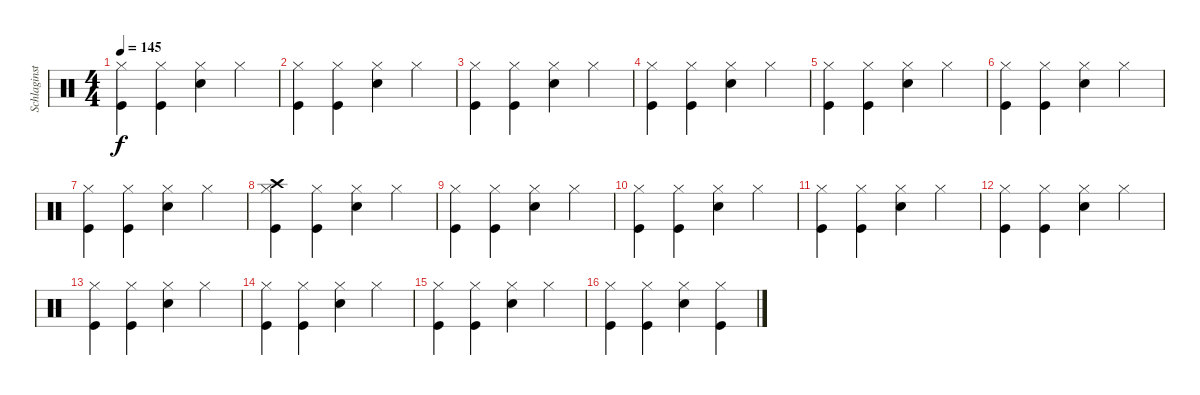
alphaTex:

\track ("Schlaginstrumente - Auswahl" "Schlaginst") {instrument percussion}
\staff {score}
\articulation defaults
\ts (4 4)
\tempo 145
\clef neutral
\ks c
("Kick (hit)" "Hi-Hat (closed)").4{dy f} ("Kick (hit)" "Hi-Hat (closed)").4 ("Snare (hit) 2" "Hi-Hat (closed)").4 "Hi-Hat (closed)".4 |
("Kick (hit)" "Hi-Hat (closed)").4 ("Kick (hit)" "Hi-Hat (closed)").4 ("Snare (hit) 2" "Hi-Hat (closed)").4 "Hi-Hat (closed)".4 |
("Kick (hit)" "Hi-Hat (closed)").4 ("Kick (hit)" "Hi-Hat (closed)").4 ("Snare (hit) 2" "Hi-Hat (closed)").4 "Hi-Hat (closed)".4 |
("Kick (hit)" "Hi-Hat (closed)").4 ("Kick (hit)" "Hi-Hat (closed)").4 ("Snare (hit) 2" "Hi-Hat (closed)").4 "Hi-Hat (closed)".4 |
("Kick (hit)" "Hi-Hat (closed)").4 ("Kick (hit)" "Hi-Hat (closed)").4 ("Snare (hit) 2" "Hi-Hat (closed)").4 "Hi-Hat (closed)".4 |
("Kick (hit)" "Hi-Hat (closed)").4 ("Kick (hit)" "Hi-Hat (closed)").4 ("Snare (hit) 2" "Hi-Hat (closed)").4 "Hi-Hat (closed)".4 |
("Kick (hit)" "Hi-Hat (closed)").4 ("Kick (hit)" "Hi-Hat (closed)").4 ("Snare (hit) 2" "Hi-Hat (closed)").4 "Hi-Hat (closed)".4 |
("Kick (hit)" "Hi-Hat (closed)" "Crash high (hit)").4 ("Kick (hit)" "Hi-Hat (closed)").4 ("Snare (hit) 2" "Hi-Hat (closed)").4 "Hi-Hat (closed)".4 |
("Kick (hit)" "Hi-Hat (closed)").4 ("Kick (hit)" "Hi-Hat (closed)").4 ("Snare (hit) 2" "Hi-Hat (closed)").4 "Hi-Hat (closed)".4 |
("Kick (hit)" "Hi-Hat (closed)").4 ("Kick (hit)" "Hi-Hat (closed)").4 ("Snare (hit) 2" "Hi-Hat (closed)").4 "Hi-Hat (closed)".4 |
("Kick (hit)" "Hi-Hat (closed)").4 ("Kick (hit)" "Hi-Hat (closed)").4 ("Snare (hit) 2" "Hi-Hat (closed)").4 "Hi-Hat (closed)".4 |
("Kick (hit)" "Hi-Hat (closed)").4 ("Kick (hit)" "Hi-Hat (closed)").4 ("Snare (hit) 2" "Hi-Hat (closed)").4 "Hi-Hat (closed)".4 |
("Kick (hit)" "Hi-Hat (closed)").4 ("Kick (hit)" "Hi-Hat (closed)").4 ("Snare (hit) 2" "Hi-Hat (closed)").4 "Hi-Hat (closed)".4 |
("Kick (hit)" "Hi-Hat (closed)").4 ("Kick (hit)" "Hi-Hat (closed)").4 ("Snare (hit) 2" "Hi-Hat (closed)").4 "Hi-Hat (closed)".4 |
("Kick (hit)" "Hi-Hat (closed)").4 ("Kick (hit)" "Hi-Hat (closed)").4 ("Snare (hit) 2" "Hi-Hat (closed)").4 "Hi-Hat (closed)".4 |
("Kick (hit)" "Hi-Hat (closed)").4 ("Kick (hit)" "Hi-Hat (closed)").4 ("Snare (hit) 2" "Hi-Hat (closed)").4 ("Hi-Hat (closed)" "Kick (hit)").4
